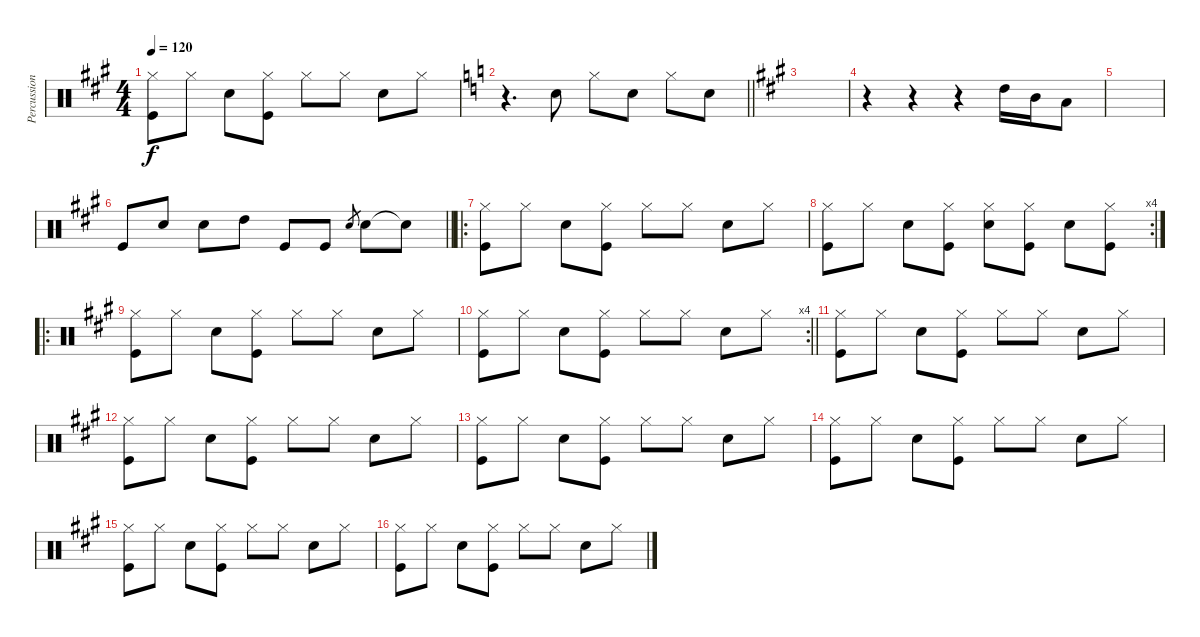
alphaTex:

\track ("Percussions" "Percussion") {instrument percussion}
\staff {score}
\articulation defaults
\ts (4 4)
\tempo 120
\clef neutral
\ks a
("Kick (hit)" "Hi-Hat (closed)").8{dy f} "Hi-Hat (closed)".8 "Snare (hit) 2".8 ("Hi-Hat (closed)" "Kick (hit)").8 "Hi-Hat (closed)".8 "Hi-Hat (closed)".8 "Snare (hit) 2".8 "Hi-Hat (closed)".8 |
\barLineRight lightlight
\ks c
r.4{d} "Snare (hit) 2".8 "Hi-Hat (closed)".8 "Snare (hit) 2".8 "Hi-Hat (closed)".8 "Snare (hit) 2".8 |
\ks a
|
r.4 r.4 r.4 "High Tom (hit)".16 "Mid Tom (hit)".16 "Low Floor Tom (hit)".8 |
|
\barLineRight lightlight "Kick (hit)".8 "Snare (hit) 2".8 "Snare (hit) 2".8 "High Tom (hit)".8 "Kick (hit)".8 "Kick (hit)".8 "Snare (hit) 2".8{gr} "Snare (hit) 2".8 "Snare (hit) 2"{t}.8
|
\ro
("Kick (hit)" "Hi-Hat (closed)").8 "Hi-Hat (closed)".8 "Snare (hit) 2".8 ("Hi-Hat (closed)" "Kick (hit)").8 "Hi-Hat (closed)".8 "Hi-Hat (closed)".8 "Snare (hit) 2".8 "Hi-Hat (closed)".8 |
\rc 4
("Kick (hit)" "Hi-Hat (closed)").8 "Hi-Hat (closed)".8 "Snare (hit) 2".8 ("Hi-Hat (closed)" "Kick (hit)").8 ("Snare (hit) 2" "Hi-Hat (closed)").8 ("Hi-Hat (closed)" "Kick (hit)").8 "Snare (hit) 2".8 ("Hi-Hat (closed)" "Kick (hit)").8 |
\ro
("Kick (hit)" "Hi-Hat (closed)").8 "Hi-Hat (closed)".8 "Snare (hit) 2".8 ("Hi-Hat (closed)" "Kick (hit)").8 "Hi-Hat (closed)".8 "Hi-Hat (closed)".8 "Snare (hit) 2".8 "Hi-Hat (closed)".8 |
\rc 4
\barLineRight lightlight
("Kick (hit)" "Hi-Hat (closed)").8 "Hi-Hat (closed)".8 "Snare (hit) 2".8 ("Hi-Hat (closed)" "Kick (hit)").8 "Hi-Hat (closed)".8 "Hi-Hat (closed)".8 "Snare (hit) 2".8 "Hi-Hat (closed)".8 |
("Kick (hit)" "Hi-Hat (closed)").8 "Hi-Hat (closed)".8 "Snare (hit) 2".8 ("Hi-Hat (closed)" "Kick (hit)").8 "Hi-Hat (closed)".8 "Hi-Hat (closed)".8 "Snare (hit) 2".8 "Hi-Hat (closed)".8 |
("Kick (hit)" "Hi-Hat (closed)").8 "Hi-Hat (closed)".8 "Snare (hit) 2".8 ("Hi-Hat (closed)" "Kick (hit)").8 "Hi-Hat (closed)".8 "Hi-Hat (closed)".8 "Snare (hit) 2".8 "Hi-Hat (closed)".8 |
("Kick (hit)" "Hi-Hat (closed)").8 "Hi-Hat (closed)".8 "Snare (hit) 2".8 ("Hi-Hat (closed)" "Kick (hit)").8 "Hi-Hat (closed)".8 "Hi-Hat (closed)".8 "Snare (hit) 2".8 "Hi-Hat (closed)".8 |
("Kick (hit)" "Hi-Hat (closed)").8 "Hi-Hat (closed)".8 "Snare (hit) 2".8 ("Hi-Hat (closed)" "Kick (hit)").8 "Hi-Hat (closed)".8 "Hi-Hat (closed)".8 "Snare (hit) 2".8 "Hi-Hat (closed)".8 |
("Kick (hit)" "Hi-Hat (closed)").8 "Hi-Hat (closed)".8 "Snare (hit) 2".8 ("Hi-Hat (closed)" "Kick (hit)").8 "Hi-Hat (closed)".8 "Hi-Hat (closed)".8 "Snare (hit) 2".8 "Hi-Hat (closed)".8 |
("Kick (hit)" "Hi-Hat (closed)").8 "Hi-Hat (closed)".8 "Snare (hit) 2".8 ("Hi-Hat (closed)" "Kick (hit)").8 "Hi-Hat (closed)".8 "Hi-Hat (closed)".8 "Snare (hit) 2".8 "Hi-Hat (closed)".8
